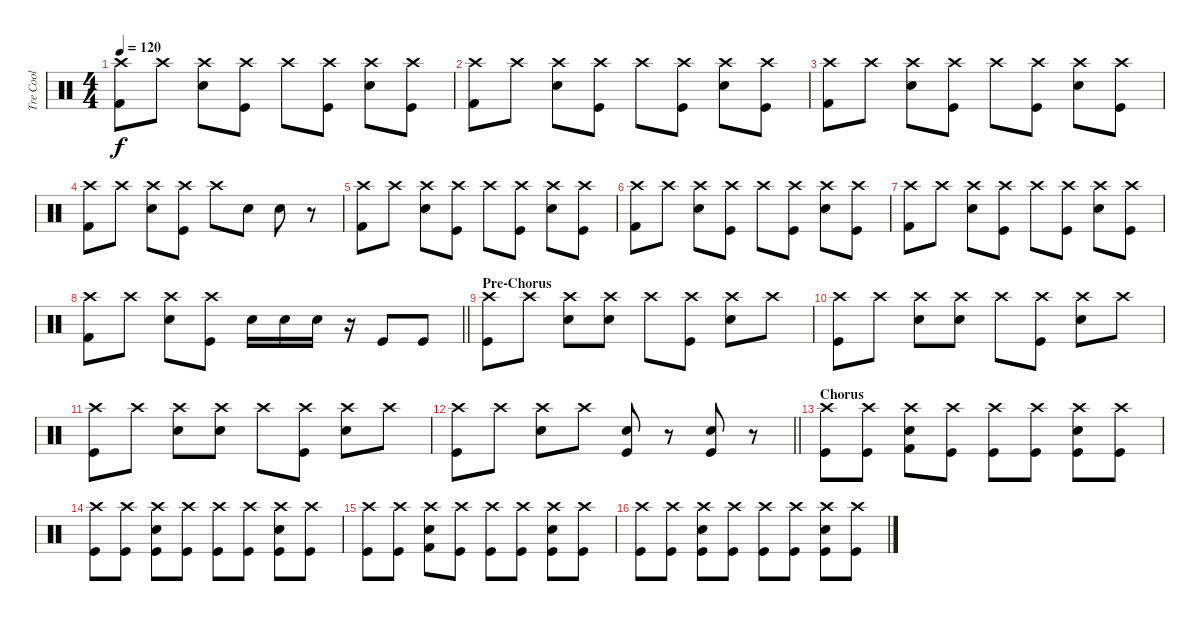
\track ("Tre Cool" "Tre Cool") {instrument percussion}
\staff {score}
\articulation defaults
\ts (4 4)
\tempo 120
\clef neutral
\ks c
("Crash high (hit)" "Kick (hit) 2").8{dy f} "Crash high (hit)".8 ("Crash high (hit)" "Snare (hit) 2").8 ("Crash high (hit)" "Kick (hit)").8 "Crash high (hit)".8 ("Crash high (hit)" "Kick (hit)").8 ("Crash high (hit)" "Snare (hit) 2").8 ("Crash high (hit)" "Kick (hit)").8 |
("Crash high (hit)" "Kick (hit) 2").8 "Crash high (hit)".8 ("Crash high (hit)" "Snare (hit) 2").8 ("Crash high (hit)" "Kick (hit)").8 "Crash high (hit)".8 ("Crash high (hit)" "Kick (hit)").8 ("Crash high (hit)" "Snare (hit) 2").8 ("Crash high (hit)" "Kick (hit)").8 |
("Crash high (hit)" "Kick (hit) 2").8 "Crash high (hit)".8 ("Crash high (hit)" "Snare (hit) 2").8 ("Crash high (hit)" "Kick (hit)").8 "Crash high (hit)".8 ("Crash high (hit)" "Kick (hit)").8 ("Crash high (hit)" "Snare (hit) 2").8 ("Crash high (hit)" "Kick (hit)").8 |
("Crash high (hit)" "Kick (hit) 2").8 "Crash high (hit)".8 ("Crash high (hit)" "Snare (hit) 2").8 ("Crash high (hit)" "Kick (hit)").8 "Crash high (hit)".8 "Snare (hit) 2".8 "Snare (hit) 2".8 r.8 |
("Crash high (hit)" "Kick (hit) 2").8 "Crash high (hit)".8 ("Crash high (hit)" "Snare (hit) 2").8 ("Crash high (hit)" "Kick (hit)").8 "Crash high (hit)".8 ("Crash high (hit)" "Kick (hit)").8 ("Crash high (hit)" "Snare (hit) 2").8 ("Crash high (hit)" "Kick (hit)").8 |
("Crash high (hit)" "Kick (hit) 2").8 "Crash high (hit)".8 ("Crash high (hit)" "Snare (hit) 2").8 ("Crash high (hit)" "Kick (hit)").8 "Crash high (hit)".8 ("Crash high (hit)" "Kick (hit)").8 ("Crash high (hit)" "Snare (hit) 2").8 ("Crash high (hit)" "Kick (hit)").8 |
("Crash high (hit)" "Kick (hit) 2").8 "Crash high (hit)".8 ("Crash high (hit)" "Snare (hit) 2").8 ("Crash high (hit)" "Kick (hit)").8 "Crash high (hit)".8 ("Crash high (hit)" "Kick (hit)").8 ("Crash high (hit)" "Snare (hit) 2").8 ("Crash high (hit)" "Kick (hit)").8 |
\barLineRight lightlight
("Crash high (hit)" "Kick (hit) 2").8 "Crash high (hit)".8 ("Crash high (hit)" "Snare (hit) 2").8 ("Crash high (hit)" "Kick (hit)").8 "Snare (hit) 2".16 "Snare (hit) 2".16 "Snare (hit) 2".16 r.16 "Kick (hit)".8 "Kick (hit)".8 |
\section ("" "Pre-Chorus")
("Crash high (hit)" "Kick (hit)").8 "Crash high (hit)".8 ("Crash high (hit)" "Snare (hit) 2").8 ("Crash high (hit)" "Snare (hit) 2").8 "Crash high (hit)".8 ("Crash high (hit)" "Kick (hit)").8 ("Crash high (hit)" "Snare (hit) 2").8 "Crash high (hit)".8 |
("Crash high (hit)" "Kick (hit)").8 "Crash high (hit)".8 ("Crash high (hit)" "Snare (hit) 2").8 ("Crash high (hit)" "Snare (hit) 2").8 "Crash high (hit)".8 ("Crash high (hit)" "Kick (hit)").8 ("Crash high (hit)" "Snare (hit) 2").8 "Crash high (hit)".8 |
("Crash high (hit)" "Kick (hit)").8 "Crash high (hit)".8 ("Crash high (hit)" "Snare (hit) 2").8 ("Crash high (hit)" "Snare (hit) 2").8 "Crash high (hit)".8 ("Crash high (hit)" "Kick (hit)").8 ("Crash high (hit)" "Snare (hit) 2").8 "Crash high (hit)".8 |
\barLineRight lightlight
("Crash high (hit)" "Kick (hit)").8 "Crash high (hit)".8 ("Crash high (hit)" "Snare (hit) 2").8 "Crash high (hit)".8 ("Kick (hit)" "Snare (hit) 2").8 r.8 ("Snare (hit) 2" "Kick (hit)").8 r.8 |
\section ("" "Chorus")
("Crash high (hit)" "Kick (hit)").8 ("Crash high (hit)" "Kick (hit)").8 ("Crash high (hit)" "Snare (hit) 2" "Kick (hit) 2").8 ("Crash high (hit)" "Kick (hit)").8 ("Crash high (hit)" "Kick (hit)").8 ("Crash high (hit)" "Kick (hit)").8 ("Crash high (hit)" "Snare (hit) 2" "Kick (hit)").8 ("Crash high (hit)" "Kick (hit)").8 |
("Crash high (hit)" "Kick (hit)").8 ("Crash high (hit)" "Kick (hit)").8 ("Crash high (hit)" "Snare (hit) 2" "Kick (hit)").8 ("Crash high (hit)" "Kick (hit)").8 ("Crash high (hit)" "Kick (hit)").8 ("Crash high (hit)" "Kick (hit)").8 ("Crash high (hit)" "Snare (hit) 2" "Kick (hit)").8 ("Crash high (hit)" "Kick (hit)").8 |
("Crash high (hit)" "Kick (hit)").8 ("Crash high (hit)" "Kick (hit)").8 ("Crash high (hit)" "Snare (hit) 2" "Kick (hit) 2").8 ("Crash high (hit)" "Kick (hit)").8 ("Crash high (hit)" "Kick (hit)").8 ("Crash high (hit)" "Kick (hit)").8 ("Crash high (hit)" "Snare (hit) 2" "Kick (hit)").8 ("Crash high (hit)" "Kick (hit)").8 |
("Crash high (hit)" "Kick (hit)").8 ("Crash high (hit)" "Kick (hit)").8 ("Crash high (hit)" "Snare (hit) 2" "Kick (hit)").8 ("Crash high (hit)" "Kick (hit)").8 ("Crash high (hit)" "Kick (hit)").8 ("Crash high (hit)" "Kick (hit)").8 ("Crash high (hit)" "Snare (hit) 2" "Kick (hit)").8 ("Crash high (hit)" "Kick (hit)").8
